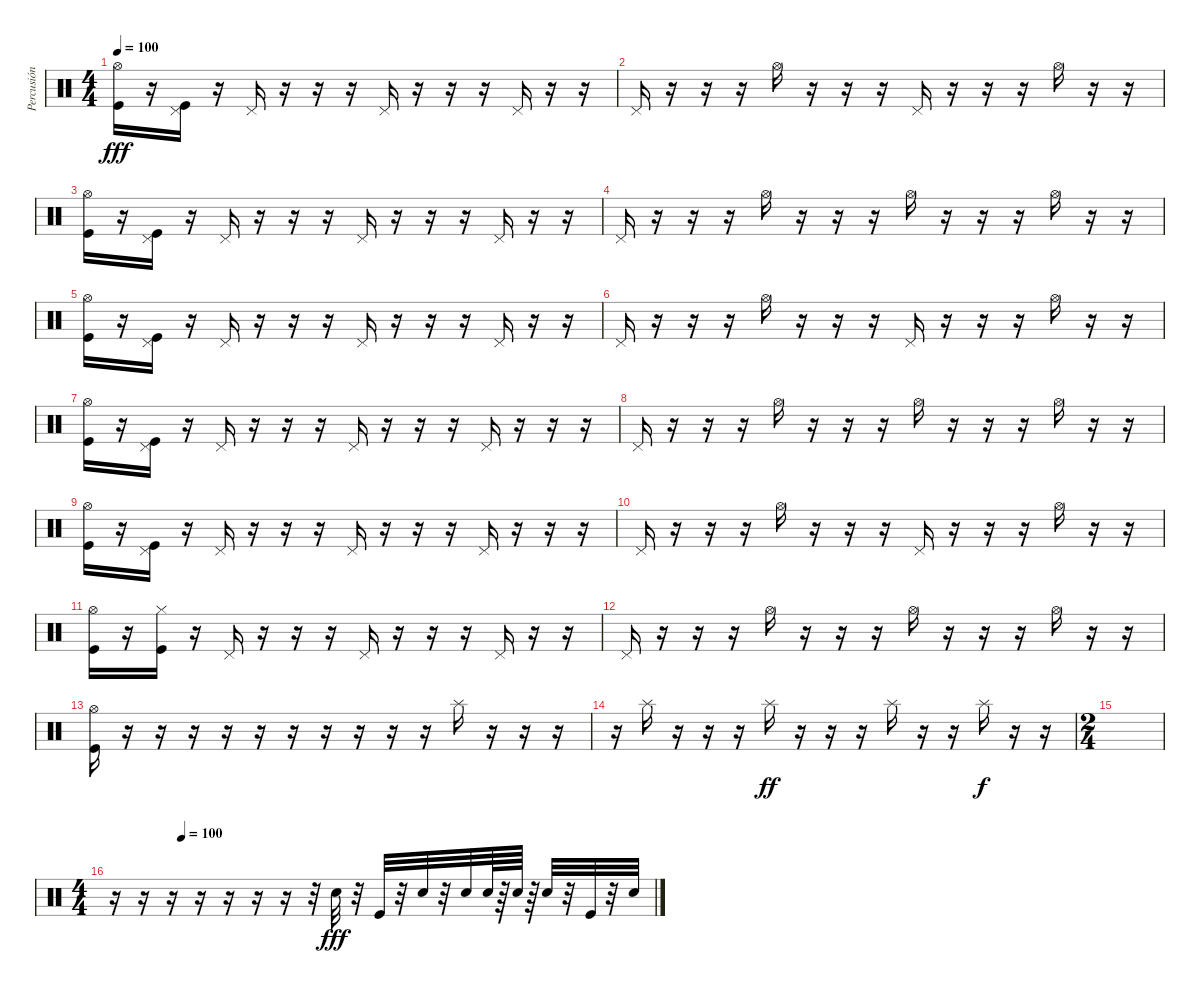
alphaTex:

\track ("Percusión" "Percusión") {instrument percussion}
\staff {score}
\articulation defaults
\ts (4 4)
\tempo 100
\clef neutral
\ks c
("Hi-Hat (open)" "Kick (hit)").16{dy fff} r.16 ("Pedal Hi-Hat (hit)" "Kick (hit)").16 r.16 "Pedal Hi-Hat (hit)".16 r.16 r.16 r.16 "Pedal Hi-Hat (hit)".16 r.16 r.16 r.16 "Pedal Hi-Hat (hit)".16 r.16 r.16 |
"Pedal Hi-Hat (hit)".16 r.16 r.16 r.16 "Hi-Hat (open)".16 r.16 r.16 r.16 "Pedal Hi-Hat (hit)".16 r.16 r.16 r.16 "Hi-Hat (open)".16 r.16 r.16 |
("Hi-Hat (open)" "Kick (hit)").16 r.16 ("Pedal Hi-Hat (hit)" "Kick (hit)").16 r.16 "Pedal Hi-Hat (hit)".16 r.16 r.16 r.16 "Pedal Hi-Hat (hit)".16 r.16 r.16 r.16 "Pedal Hi-Hat (hit)".16 r.16 r.16 |
"Pedal Hi-Hat (hit)".16 r.16 r.16 r.16 "Hi-Hat (open)".16 r.16 r.16 r.16 "Hi-Hat (open)".16 r.16 r.16 r.16 "Hi-Hat (open)".16 r.16 r.16 |
("Hi-Hat (open)" "Kick (hit)").16 r.16 ("Pedal Hi-Hat (hit)" "Kick (hit)").16 r.16 "Pedal Hi-Hat (hit)".16 r.16 r.16 r.16 "Pedal Hi-Hat (hit)".16 r.16 r.16 r.16 "Pedal Hi-Hat (hit)".16 r.16 r.16 |
"Pedal Hi-Hat (hit)".16 r.16 r.16 r.16 "Hi-Hat (open)".16 r.16 r.16 r.16 "Pedal Hi-Hat (hit)".16 r.16 r.16 r.16 "Hi-Hat (open)".16 r.16 r.16 |
("Hi-Hat (open)" "Kick (hit)").16 r.16 ("Pedal Hi-Hat (hit)" "Kick (hit)").16 r.16 "Pedal Hi-Hat (hit)".16 r.16 r.16 r.16 "Pedal Hi-Hat (hit)".16 r.16 r.16 r.16 "Pedal Hi-Hat (hit)".16 r.16 r.16 r.16 |
"Pedal Hi-Hat (hit)".16 r.16 r.16 r.16 "Hi-Hat (open)".16 r.16 r.16 r.16 "Hi-Hat (open)".16 r.16 r.16 r.16 "Hi-Hat (open)".16 r.16 r.16 |
("Hi-Hat (open)" "Kick (hit)").16 r.16 ("Pedal Hi-Hat (hit)" "Kick (hit)").16 r.16 "Pedal Hi-Hat (hit)".16 r.16 r.16 r.16 "Pedal Hi-Hat (hit)".16 r.16 r.16 r.16 "Pedal Hi-Hat (hit)".16 r.16 r.16 r.16 |
"Pedal Hi-Hat (hit)".16 r.16 r.16 r.16 "Hi-Hat (open)".16 r.16 r.16 r.16 "Pedal Hi-Hat (hit)".16 r.16 r.16 r.16 "Hi-Hat (open)".16 r.16 r.16 |
("Hi-Hat (open)" "Kick (hit)").16 r.16 ("Hi-Hat (closed)" "Kick (hit)").16 r.16 "Pedal Hi-Hat (hit)".16 r.16 r.16 r.16 "Pedal Hi-Hat (hit)".16 r.16 r.16 r.16 "Pedal Hi-Hat (hit)".16 r.16 r.16 |
"Pedal Hi-Hat (hit)".16 r.16 r.16 r.16 "Hi-Hat (open)".16 r.16 r.16 r.16 "Hi-Hat (open)".16 r.16 r.16 r.16 "Hi-Hat (open)".16 r.16 r.16 |
("Hi-Hat (open)" "Kick (hit)").16 r.16 r.16 r.16 r.16 r.16 r.16 r.16 r.16 r.16 r.16 "Splash (hit)".16 r.16 r.16 r.16 |
r.16 "Splash (hit)".16 r.16 r.16 r.16 "Splash (hit)".16{dy ff} r.16 r.16 r.16 "Splash (hit)".16 r.16 r.16 "Splash (hit)".16{dy f} r.16 r.16 |
\ts (2 4)
|
\ts (4 4)
\tempo (100 0.125)
r.16 r.16 r.16 r.16 r.16 r.16 r.16 r.32 "Snare (hit) 2".32{dy fff} r.32 "Kick (hit)".32 r.32 "Snare (hit) 2".32 r.32 "Snare (hit) 2".32 "Snare (hit) 2".64 r.64 "Snare (hit) 2".64 r.64 "Snare (hit) 2".32 r.32 "Kick (hit)".32 r.32 "Snare (hit) 2".32
